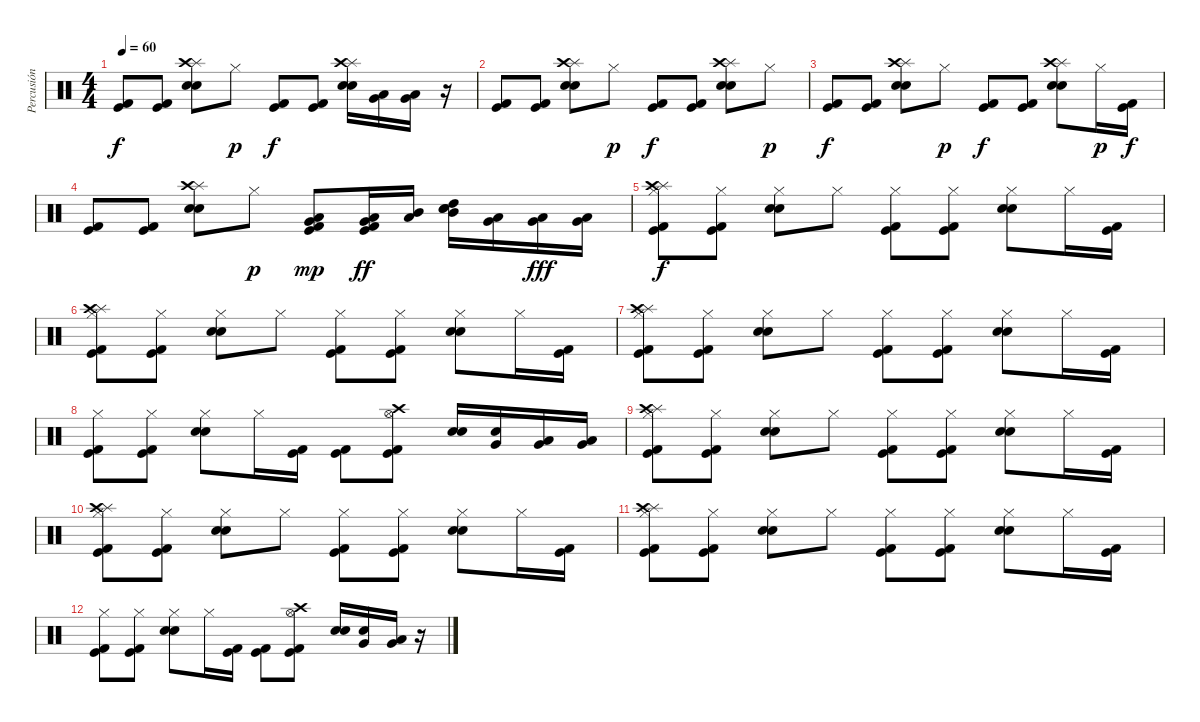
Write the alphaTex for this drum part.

\track ("Percusión" "Percusión") {instrument percussion}
\staff {score}
\articulation defaults
\ts (4 4)
\tempo 60
\clef neutral
\ks c
("Kick (hit)" "Kick (hit) 2").8{dy f} ("Kick (hit)" "Kick (hit) 2").8 ("Snare (hit) 2" "Electric Snare (hit)" "Splash (hit)" "Crash high (hit)").8 "Hi-Hat (closed)".8{dy p} ("Kick (hit)" "Kick (hit) 2").8{dy f} ("Kick (hit)" "Kick (hit) 2").8 ("Snare (hit) 2" "Electric Snare (hit)" "Splash (hit)" "Crash high (hit)").16 ("Low Floor Tom (hit)" "Very Low Tom (hit)").16 ("Low Floor Tom (hit)" "Very Low Tom (hit)").16 r.16 |
("Kick (hit)" "Kick (hit) 2").8 ("Kick (hit)" "Kick (hit) 2").8 ("Snare (hit) 2" "Electric Snare (hit)" "Splash (hit)" "Crash high (hit)").8 "Hi-Hat (closed)".8{dy p} ("Kick (hit)" "Kick (hit) 2").8{dy f} ("Kick (hit)" "Kick (hit) 2").8 ("Snare (hit) 2" "Electric Snare (hit)" "Splash (hit)" "Crash high (hit)").8 "Hi-Hat (closed)".8{dy p} |
("Kick (hit)" "Kick (hit) 2").8{dy f} ("Kick (hit)" "Kick (hit) 2").8 ("Snare (hit) 2" "Electric Snare (hit)" "Splash (hit)" "Crash high (hit)").8 "Hi-Hat (closed)".8{dy p} ("Kick (hit)" "Kick (hit) 2").8{dy f} ("Kick (hit)" "Kick (hit) 2").8 ("Snare (hit) 2" "Electric Snare (hit)" "Splash (hit)" "Crash high (hit)").8 "Hi-Hat (closed)".16{dy p} ("Kick (hit) 2" "Kick (hit)").16{dy f} |
("Kick (hit)" "Kick (hit) 2").8 ("Kick (hit)" "Kick (hit) 2").8 ("Snare (hit) 2" "Electric Snare (hit)" "Splash (hit)" "Crash high (hit)").8 "Hi-Hat (closed)".8{dy p} ("Kick (hit)" "Kick (hit) 2" "Low Floor Tom (hit)" "Very Low Tom (hit)").8{bd 60 dy mp} ("Kick (hit)" "Kick (hit) 2" "Very Low Tom (hit)" "Low Tom (hit)").16{dy ff} ("Low Tom (hit)" "Mid Tom (hit)").16 ("Snare (hit) 2" "Electric Snare (hit)" "High Tom (hit)" "Mid Tom (hit)").16 ("Low Floor Tom (hit)" "Very Low Tom (hit)").16 ("Very Low Tom (hit)" "Low Tom (hit)").16{dy fff} ("Low Tom (hit)" "Very Low Tom (hit)").16 |
("Kick (hit) 2" "Kick (hit)" "Hi-Hat (closed)" "Splash (hit)" "Crash high (hit)").8{dy f} ("Kick (hit) 2" "Kick (hit)" "Hi-Hat (closed)").8 ("Electric Snare (hit)" "Snare (hit) 2" "Hi-Hat (closed)").8 "Hi-Hat (closed)".8 ("Kick (hit) 2" "Kick (hit)" "Hi-Hat (closed)").8 ("Kick (hit) 2" "Kick (hit)" "Hi-Hat (closed)").8 ("Electric Snare (hit)" "Snare (hit) 2" "Hi-Hat (closed)").8 "Hi-Hat (closed)".16 ("Kick (hit) 2" "Kick (hit)").16 |
("Kick (hit) 2" "Kick (hit)" "Hi-Hat (closed)" "Splash (hit)" "Crash high (hit)").8 ("Kick (hit) 2" "Kick (hit)" "Hi-Hat (closed)").8 ("Electric Snare (hit)" "Snare (hit) 2" "Hi-Hat (closed)").8 "Hi-Hat (closed)".8 ("Kick (hit) 2" "Kick (hit)" "Hi-Hat (closed)").8 ("Kick (hit) 2" "Kick (hit)" "Hi-Hat (closed)").8 ("Electric Snare (hit)" "Snare (hit) 2" "Hi-Hat (closed)").8 "Hi-Hat (closed)".16 ("Kick (hit) 2" "Kick (hit)").16 |
("Kick (hit) 2" "Kick (hit)" "Hi-Hat (closed)" "Splash (hit)" "Crash high (hit)").8 ("Kick (hit) 2" "Kick (hit)" "Hi-Hat (closed)").8 ("Electric Snare (hit)" "Snare (hit) 2" "Hi-Hat (closed)").8 "Hi-Hat (closed)".8 ("Kick (hit) 2" "Kick (hit)" "Hi-Hat (closed)").8 ("Kick (hit) 2" "Kick (hit)" "Hi-Hat (closed)").8 ("Electric Snare (hit)" "Snare (hit) 2" "Hi-Hat (closed)").8 "Hi-Hat (closed)".16 ("Kick (hit) 2" "Kick (hit)").16 |
("Kick (hit) 2" "Kick (hit)" "Hi-Hat (closed)").8 ("Kick (hit) 2" "Kick (hit)" "Hi-Hat (closed)").8 ("Electric Snare (hit)" "Snare (hit) 2" "Hi-Hat (closed)").8 "Hi-Hat (closed)".16 ("Kick (hit) 2" "Kick (hit)").16 ("Kick (hit)" "Kick (hit) 2").8 ("Kick (hit)" "Kick (hit) 2" "Crash high (hit)" "Hi-Hat (open)").8 ("Snare (hit) 2" "Electric Snare (hit)").16 ("Very Low Tom (hit)" "Snare (hit)").16 ("Very Low Tom (hit)" "Low Floor Tom (hit)").16 ("Very Low Tom (hit)" "Low Floor Tom (hit)").16 |
("Kick (hit) 2" "Kick (hit)" "Hi-Hat (closed)" "Splash (hit)" "Crash high (hit)").8 ("Kick (hit) 2" "Kick (hit)" "Hi-Hat (closed)").8 ("Electric Snare (hit)" "Snare (hit) 2" "Hi-Hat (closed)").8 "Hi-Hat (closed)".8 ("Kick (hit) 2" "Kick (hit)" "Hi-Hat (closed)").8 ("Kick (hit) 2" "Kick (hit)" "Hi-Hat (closed)").8 ("Electric Snare (hit)" "Snare (hit) 2" "Hi-Hat (closed)").8 "Hi-Hat (closed)".16 ("Kick (hit) 2" "Kick (hit)").16 |
("Kick (hit) 2" "Kick (hit)" "Hi-Hat (closed)" "Splash (hit)" "Crash high (hit)").8 ("Kick (hit) 2" "Kick (hit)" "Hi-Hat (closed)").8 ("Electric Snare (hit)" "Snare (hit) 2" "Hi-Hat (closed)").8 "Hi-Hat (closed)".8 ("Kick (hit) 2" "Kick (hit)" "Hi-Hat (closed)").8 ("Kick (hit) 2" "Kick (hit)" "Hi-Hat (closed)").8 ("Electric Snare (hit)" "Snare (hit) 2" "Hi-Hat (closed)").8 "Hi-Hat (closed)".16 ("Kick (hit) 2" "Kick (hit)").16 |
("Kick (hit) 2" "Kick (hit)" "Hi-Hat (closed)" "Splash (hit)" "Crash high (hit)").8 ("Kick (hit) 2" "Kick (hit)" "Hi-Hat (closed)").8 ("Electric Snare (hit)" "Snare (hit) 2" "Hi-Hat (closed)").8 "Hi-Hat (closed)".8 ("Kick (hit) 2" "Kick (hit)" "Hi-Hat (closed)").8 ("Kick (hit) 2" "Kick (hit)" "Hi-Hat (closed)").8 ("Electric Snare (hit)" "Snare (hit) 2" "Hi-Hat (closed)").8 "Hi-Hat (closed)".16 ("Kick (hit) 2" "Kick (hit)").16 |
("Kick (hit) 2" "Kick (hit)" "Hi-Hat (closed)").8 ("Kick (hit) 2" "Kick (hit)" "Hi-Hat (closed)").8 ("Electric Snare (hit)" "Snare (hit) 2" "Hi-Hat (closed)").8 "Hi-Hat (closed)".16 ("Kick (hit) 2" "Kick (hit)").16 ("Kick (hit)" "Kick (hit) 2").8 ("Kick (hit)" "Kick (hit) 2" "Crash high (hit)" "Hi-Hat (open)").8 ("Snare (hit) 2" "Electric Snare (hit)").16 ("Very Low Tom (hit)" "Snare (hit)").16 ("Very Low Tom (hit)" "Low Floor Tom (hit)").16 r.16
